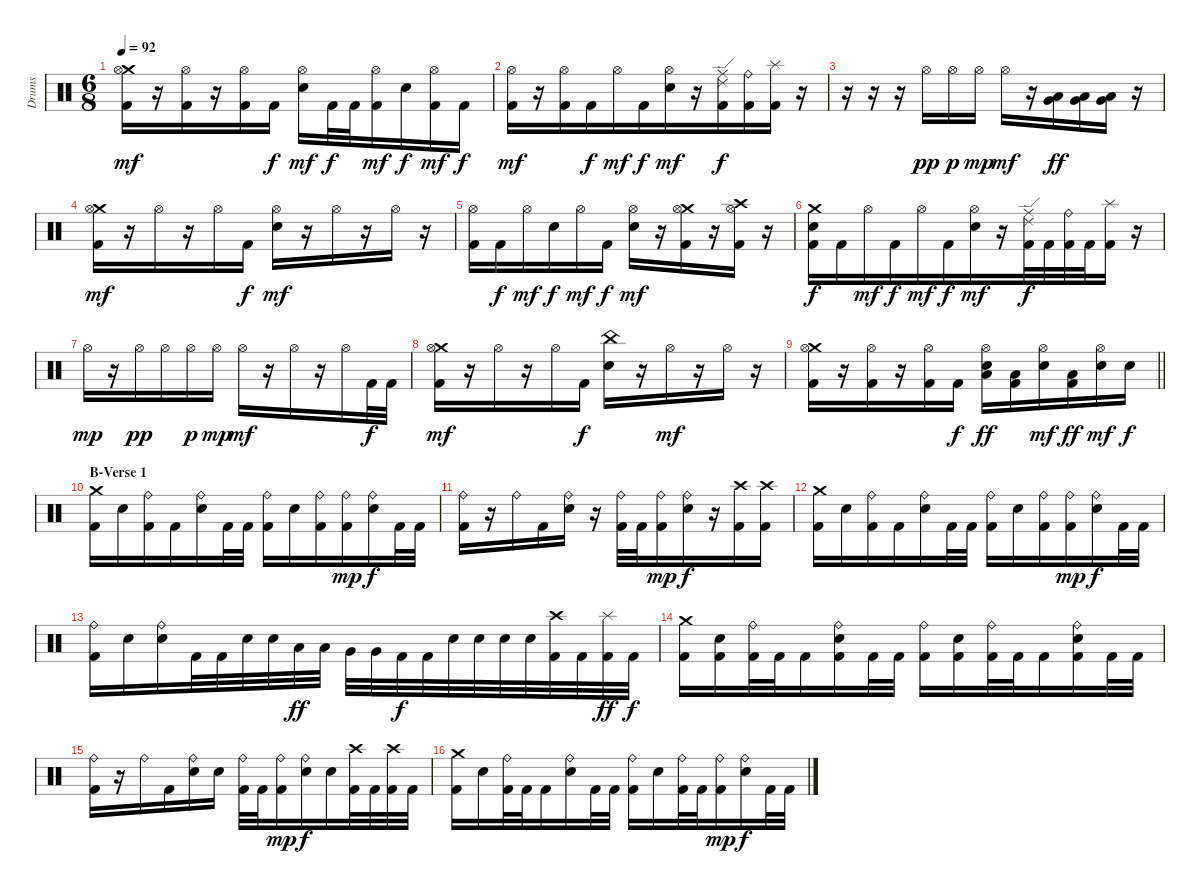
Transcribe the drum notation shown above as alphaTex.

\track ("Drums" "Drums") {instrument percussion}
\staff {score}
\articulation defaults
\ts (6 8)
\tempo 92
\clef neutral
\ks c
("Crash medium (hit)" "Hi-Hat (open)" "Kick (hit) 2").16{dy mf beam merge} r.16 ("Hi-Hat (open)" "Kick (hit) 2").16{beam merge} r.16 ("Hi-Hat (open)" "Kick (hit) 2").16{beam merge} "Kick (hit) 2".16{dy f} ("Hi-Hat (open)" "Snare (hit) 2").16{dy mf beam merge} "Kick (hit) 2".32{dy f beam merge} "Kick (hit) 2".32 ("Hi-Hat (open)" "Kick (hit) 2").16{dy mf beam merge} "Snare (hit) 2".16{dy f} ("Hi-Hat (open)" "Kick (hit) 2").16{dy mf} "Kick (hit) 2".16{dy f} |
("Hi-Hat (open)" "Kick (hit) 2").16{dy mf beam merge} r.16 ("Hi-Hat (open)" "Kick (hit) 2").16 "Kick (hit) 2".16{dy f beam merge} "Hi-Hat (open)".16{dy mf} "Kick (hit) 2".16{dy f beam merge} ("Hi-Hat (open)" "Snare (hit) 2").16{dy mf} r.16{beam merge} ("Ride (edge) 2" "Ride (middle)" "Kick (hit) 2").16{dy f beam merge} ("Ride (bell)" "Kick (hit) 2").16{beam merge} ("Splash (hit)" "Kick (hit) 2").16{beam merge} r.16 |
r.16 r.16{beam merge} r.16 "Hi-Hat (open)".16{dy pp beam merge} "Hi-Hat (open)".16{dy p} "Hi-Hat (open)".16{dy mp} "Hi-Hat (open)".16{dy mf} r.16{beam merge} ("Very Low Tom (hit)" "Low Floor Tom (hit)").16{dy ff} ("Very Low Tom (hit)" "Low Floor Tom (hit)").16 ("Very Low Tom (hit)" "Low Floor Tom (hit)").16{beam merge} r.16 |
("Crash medium (hit)" "Hi-Hat (open)" "Kick (hit) 2").16{dy mf beam merge} r.16 "Hi-Hat (open)".16{beam merge} r.16 "Hi-Hat (open)".16{beam merge} "Kick (hit) 2".16{dy f} ("Hi-Hat (open)" "Snare (hit) 2").16{dy mf beam merge} r.16 "Hi-Hat (open)".16{beam merge} r.16 "Hi-Hat (open)".16 r.16 |
("Hi-Hat (open)" "Kick (hit) 2").16{beam merge} "Kick (hit) 2".16{dy f} "Hi-Hat (open)".16{dy mf beam merge} "Snare (hit) 2".16{dy f} "Hi-Hat (open)".16{dy mf beam merge} "Kick (hit) 2".16{dy f} ("Hi-Hat (open)" "Snare (hit) 2").16{dy mf beam merge} r.16 ("Crash medium (hit)" "Hi-Hat (open)" "Kick (hit) 2").16{beam merge} r.16 ("Crash high (hit)" "Hi-Hat (open)" "Kick (hit) 2").16 r.16 |
("Crash medium (hit)" "Snare (hit) 2" "Kick (hit) 2").16{dy f beam merge} "Kick (hit) 2".16 "Hi-Hat (open)".16{dy mf} "Kick (hit) 2".16{dy f beam merge} "Hi-Hat (open)".16{dy mf} "Kick (hit) 2".16{dy f beam merge} ("Hi-Hat (open)" "Snare (hit) 2").16{dy mf} r.16{beam merge} ("Ride (edge) 2" "Ride (middle)" "Kick (hit) 2").32{dy f} "Kick (hit) 2".32{beam merge} ("Ride (bell)" "Kick (hit) 2").32 "Kick (hit) 2".32{beam merge} ("Splash (hit)" "Kick (hit) 2").16 r.16 |
"Hi-Hat (open)".16{dy mp} r.16{beam merge} "Hi-Hat (open)".16{dy pp} "Hi-Hat (open)".16{beam merge} "Hi-Hat (open)".16{dy p} "Hi-Hat (open)".16{dy mp} "Hi-Hat (open)".16{dy mf} r.16{beam merge} "Hi-Hat (open)".16 r.16 "Hi-Hat (open)".16{beam merge} "Kick (hit) 2".32{dy f beam merge} "Kick (hit) 2".32 |
("Crash medium (hit)" "Hi-Hat (open)" "Kick (hit) 2").16{dy mf beam merge} r.16 "Hi-Hat (open)".16{beam merge} r.16 "Hi-Hat (open)".16{beam merge} "Kick (hit) 2".16{dy f} ("China (hit)" "Snare (hit) 2").16{beam merge} r.16 "Hi-Hat (open)".16{dy mf beam merge} r.16 "Hi-Hat (open)".16 r.16 |
\barLineRight lightlight
("Crash medium (hit)" "Hi-Hat (open)" "Kick (hit) 2").16{beam merge} r.16 ("Hi-Hat (open)" "Kick (hit) 2").16{beam merge} r.16 ("Hi-Hat (open)" "Kick (hit) 2").16{beam merge} "Kick (hit) 2".16{dy f} ("Hi-Hat (open)" "Low Floor Tom (hit)" "Snare (hit) 2").16{dy ff beam merge} ("Low Floor Tom (hit)" "Kick (hit) 2").16 ("Hi-Hat (open)" "Snare (hit) 2").16{dy mf beam merge} ("Low Floor Tom (hit)" "Kick (hit) 2").16{dy ff} ("Hi-Hat (open)" "Snare (hit) 2").16{dy mf} "Snare (hit) 2".16{dy f} |
\section ("" "B-Verse 1")
("Crash medium (hit)" "Kick (hit) 2").16 "Snare (hit) 2".16 ("Ride (bell)" "Kick (hit) 2").16{beam merge} "Kick (hit) 2".16 ("Ride (bell)" "Snare (hit) 2").16 "Kick (hit) 2".32 "Kick (hit) 2".32 ("Ride (bell)" "Kick (hit) 2").16{beam merge} "Snare (hit) 2".16 ("Ride (bell)" "Kick (hit) 2").16 ("Ride (bell)" "Kick (hit) 2").16{dy mp beam merge} ("Ride (bell)" "Snare (hit) 2").16{dy f beam merge} "Kick (hit) 2".32{beam merge} "Kick (hit) 2".32 |
("Ride (bell)" "Kick (hit) 2").16 r.16 "Ride (bell)".16{beam merge} "Kick (hit) 2".16 ("Ride (bell)" "Snare (hit) 2").16 r.16 ("Ride (bell)" "Kick (hit) 2").32 "Kick (hit) 2".32 ("Ride (bell)" "Kick (hit) 2").16{dy mp} ("Ride (bell)" "Snare (hit) 2").16{dy f beam merge} r.16 ("Crash high (hit)" "Kick (hit) 2").16 ("Crash high (hit)" "Kick (hit) 2").16 |
("Crash medium (hit)" "Kick (hit) 2").16 "Snare (hit) 2".16 ("Ride (bell)" "Kick (hit) 2").16{beam merge} "Kick (hit) 2".16 ("Ride (bell)" "Snare (hit) 2").16 "Kick (hit) 2".32 "Kick (hit) 2".32 ("Ride (bell)" "Kick (hit) 2").16{beam merge} "Snare (hit) 2".16 ("Ride (bell)" "Kick (hit) 2").16 ("Ride (bell)" "Kick (hit) 2").16{dy mp beam merge} ("Ride (bell)" "Snare (hit) 2").16{dy f beam merge} "Kick (hit) 2".32{beam merge} "Kick (hit) 2".32 |
("Ride (bell)" "Kick (hit) 2").16 "Snare (hit) 2".16{beam merge} ("Ride (bell)" "Snare (hit) 2").16 "Kick (hit) 2".32{beam merge} "Kick (hit) 2".32{beam merge} "Snare (hit) 2".32 "Snare (hit) 2".32 "Low Tom (hit)".32{dy ff} "Low Tom (hit)".32 "Very Low Tom (hit)".32{beam merge} "Very Low Tom (hit)".32 "Kick (hit) 2".32{dy f} "Kick (hit) 2".32{beam merge} "Snare (hit) 2".32 "Snare (hit) 2".32{beam merge} "Snare (hit) 2".32 "Snare (hit) 2".32 ("Crash high (hit)" "Kick (hit) 2").32{beam merge} "Kick (hit) 2".32 ("Splash (hit)" "Kick (hit) 2").32{dy ff} "Kick (hit) 2".32{dy f} |
("Crash medium (hit)" "Kick (hit) 2").16 ("Snare (hit) 2" "Kick (hit) 2").16 ("Ride (bell)" "Kick (hit) 2").32 "Kick (hit) 2".32{beam merge} "Kick (hit) 2".16 ("Ride (bell)" "Snare (hit) 2" "Kick (hit) 2").16 "Kick (hit) 2".32 "Kick (hit) 2".32 ("Ride (bell)" "Kick (hit) 2").16{beam merge} ("Snare (hit) 2" "Kick (hit) 2").16 ("Ride (bell)" "Kick (hit) 2").32{beam merge} "Kick (hit) 2".32 "Kick (hit) 2".16{beam merge} ("Ride (bell)" "Snare (hit) 2" "Kick (hit) 2").16{beam merge} "Kick (hit) 2".32{beam merge} "Kick (hit) 2".32 |
("Ride (bell)" "Kick (hit) 2").16 r.16 "Ride (bell)".16{beam merge} "Kick (hit) 2".16 ("Ride (bell)" "Snare (hit) 2").16 "Snare (hit) 2".16 ("Ride (bell)" "Kick (hit) 2").32 "Kick (hit) 2".32{beam merge} ("Ride (bell)" "Kick (hit) 2").16{dy mp} ("Ride (bell)" "Snare (hit) 2").16{dy f} "Snare (hit) 2".16{beam merge} ("Crash high (hit)" "Kick (hit) 2").32{beam merge} "Kick (hit) 2".32{beam merge} ("Crash high (hit)" "Kick (hit) 2").32{beam merge} "Kick (hit) 2".32 |
("Crash medium (hit)" "Kick (hit) 2").16 "Snare (hit) 2".16 ("Ride (bell)" "Kick (hit) 2").32 "Kick (hit) 2".32{beam merge} "Kick (hit) 2".16 ("Ride (bell)" "Snare (hit) 2").16 "Kick (hit) 2".32 "Kick (hit) 2".32 ("Ride (bell)" "Kick (hit) 2").16{beam merge} "Snare (hit) 2".16 ("Ride (bell)" "Kick (hit) 2").32{beam merge} "Kick (hit) 2".32 ("Ride (bell)" "Kick (hit) 2").16{dy mp beam merge} ("Ride (bell)" "Snare (hit) 2").16{dy f beam merge} "Kick (hit) 2".32{beam merge} "Kick (hit) 2".32
